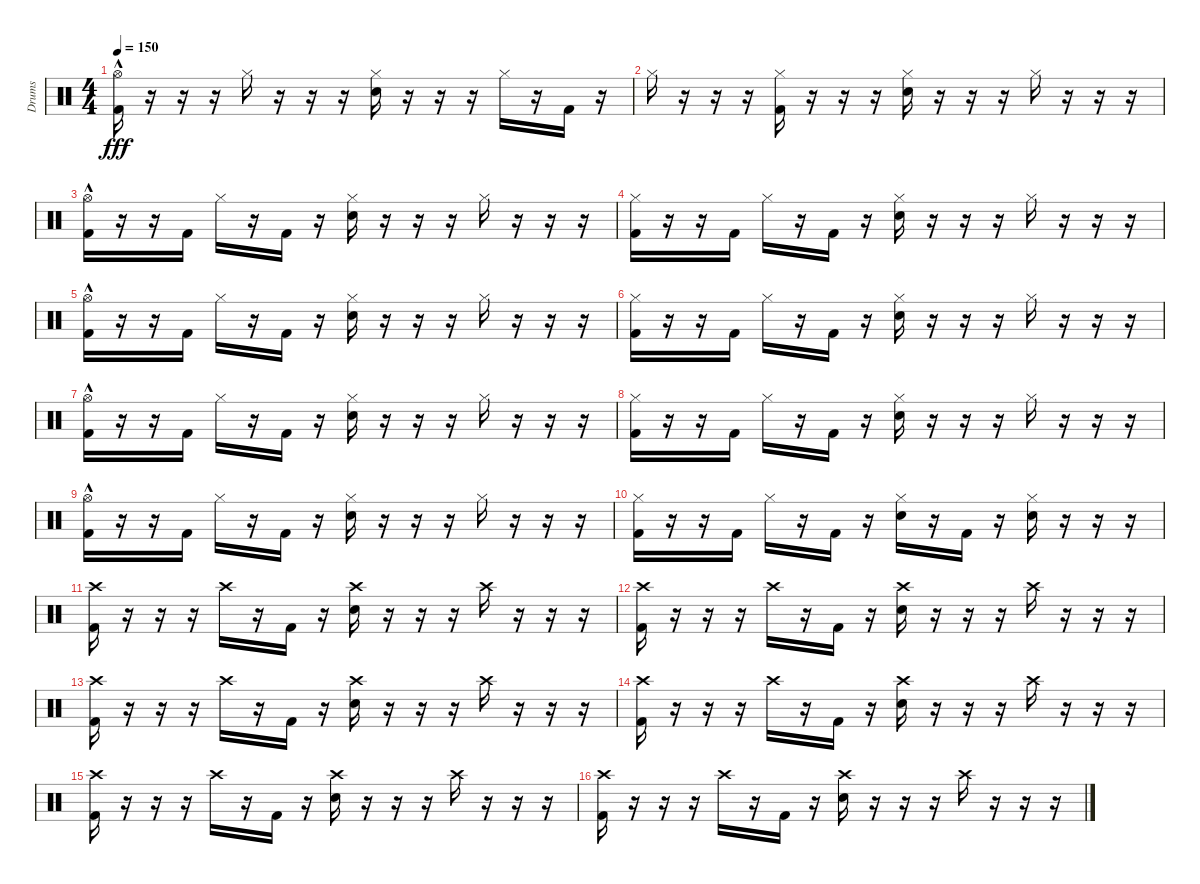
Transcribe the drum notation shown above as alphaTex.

\track ("Drums" "Drums") {instrument percussion}
\staff {score}
\articulation defaults
\ts (4 4)
\tempo 150
\clef neutral
\ks c
("Hi-Hat (open)"{hac} "Kick (hit) 2").16{dy fff} r.16 r.16 r.16 "Hi-Hat (closed)".16 r.16 r.16 r.16 ("Hi-Hat (closed)" "Electric Snare (hit)").16 r.16 r.16 r.16 "Hi-Hat (closed)".16 r.16 "Kick (hit) 2".16 r.16 |
"Hi-Hat (closed)".16 r.16 r.16 r.16 ("Hi-Hat (closed)" "Kick (hit) 2").16 r.16 r.16 r.16 ("Hi-Hat (closed)" "Electric Snare (hit)").16 r.16 r.16 r.16 "Hi-Hat (closed)".16 r.16 r.16 r.16 |
("Hi-Hat (open)"{hac} "Kick (hit) 2").16 r.16 r.16 "Kick (hit) 2".16 "Hi-Hat (closed)".16 r.16 "Kick (hit) 2".16 r.16 ("Hi-Hat (closed)" "Electric Snare (hit)").16 r.16 r.16 r.16 "Hi-Hat (closed)".16 r.16 r.16 r.16 |
("Hi-Hat (closed)" "Kick (hit) 2").16 r.16 r.16 "Kick (hit) 2".16 "Hi-Hat (closed)".16 r.16 "Kick (hit) 2".16 r.16 ("Hi-Hat (closed)" "Electric Snare (hit)").16 r.16 r.16 r.16 "Hi-Hat (closed)".16 r.16 r.16 r.16 |
("Hi-Hat (open)"{hac} "Kick (hit) 2").16 r.16 r.16 "Kick (hit) 2".16 "Hi-Hat (closed)".16 r.16 "Kick (hit) 2".16 r.16 ("Hi-Hat (closed)" "Electric Snare (hit)").16 r.16 r.16 r.16 "Hi-Hat (closed)".16 r.16 r.16 r.16 |
("Hi-Hat (closed)" "Kick (hit) 2").16 r.16 r.16 "Kick (hit) 2".16 "Hi-Hat (closed)".16 r.16 "Kick (hit) 2".16 r.16 ("Hi-Hat (closed)" "Electric Snare (hit)").16 r.16 r.16 r.16 "Hi-Hat (closed)".16 r.16 r.16 r.16 |
("Hi-Hat (open)"{hac} "Kick (hit) 2").16 r.16 r.16 "Kick (hit) 2".16 "Hi-Hat (closed)".16 r.16 "Kick (hit) 2".16 r.16 ("Hi-Hat (closed)" "Electric Snare (hit)").16 r.16 r.16 r.16 "Hi-Hat (closed)".16 r.16 r.16 r.16 |
("Hi-Hat (closed)" "Kick (hit) 2").16 r.16 r.16 "Kick (hit) 2".16 "Hi-Hat (closed)".16 r.16 "Kick (hit) 2".16 r.16 ("Hi-Hat (closed)" "Electric Snare (hit)").16 r.16 r.16 r.16 "Hi-Hat (closed)".16 r.16 r.16 r.16 |
("Hi-Hat (open)"{hac} "Kick (hit) 2").16 r.16 r.16 "Kick (hit) 2".16 "Hi-Hat (closed)".16 r.16 "Kick (hit) 2".16 r.16 ("Hi-Hat (closed)" "Electric Snare (hit)").16 r.16 r.16 r.16 "Hi-Hat (closed)".16 r.16 r.16 r.16 |
("Hi-Hat (closed)" "Kick (hit) 2").16 r.16 r.16 "Kick (hit) 2".16 "Hi-Hat (closed)".16 r.16 "Kick (hit) 2".16 r.16 ("Hi-Hat (closed)" "Electric Snare (hit)").16 r.16 "Kick (hit) 2".16 r.16 ("Hi-Hat (closed)" "Electric Snare (hit)").16 r.16 r.16 r.16 |
("Crash high (hit)" "Kick (hit) 2").16 r.16 r.16 r.16 "Crash high (hit)".16 r.16 "Kick (hit) 2".16 r.16 ("Crash high (hit)" "Electric Snare (hit)").16 r.16 r.16 r.16 "Crash high (hit)".16 r.16 r.16 r.16 |
("Crash high (hit)" "Kick (hit) 2").16 r.16 r.16 r.16 "Crash high (hit)".16 r.16 "Kick (hit) 2".16 r.16 ("Crash high (hit)" "Electric Snare (hit)").16 r.16 r.16 r.16 "Crash high (hit)".16 r.16 r.16 r.16 |
("Crash high (hit)" "Kick (hit) 2").16 r.16 r.16 r.16 "Crash high (hit)".16 r.16 "Kick (hit) 2".16 r.16 ("Crash high (hit)" "Electric Snare (hit)").16 r.16 r.16 r.16 "Crash high (hit)".16 r.16 r.16 r.16 |
("Crash high (hit)" "Kick (hit) 2").16 r.16 r.16 r.16 "Crash high (hit)".16 r.16 "Kick (hit) 2".16 r.16 ("Crash high (hit)" "Electric Snare (hit)").16 r.16 r.16 r.16 "Crash high (hit)".16 r.16 r.16 r.16 |
("Crash high (hit)" "Kick (hit) 2").16 r.16 r.16 r.16 "Crash high (hit)".16 r.16 "Kick (hit) 2".16 r.16 ("Crash high (hit)" "Electric Snare (hit)").16 r.16 r.16 r.16 "Crash high (hit)".16 r.16 r.16 r.16 |
("Crash high (hit)" "Kick (hit) 2").16 r.16 r.16 r.16 "Crash high (hit)".16 r.16 "Kick (hit) 2".16 r.16 ("Crash high (hit)" "Electric Snare (hit)").16 r.16 r.16 r.16 "Crash high (hit)".16 r.16 r.16 r.16
